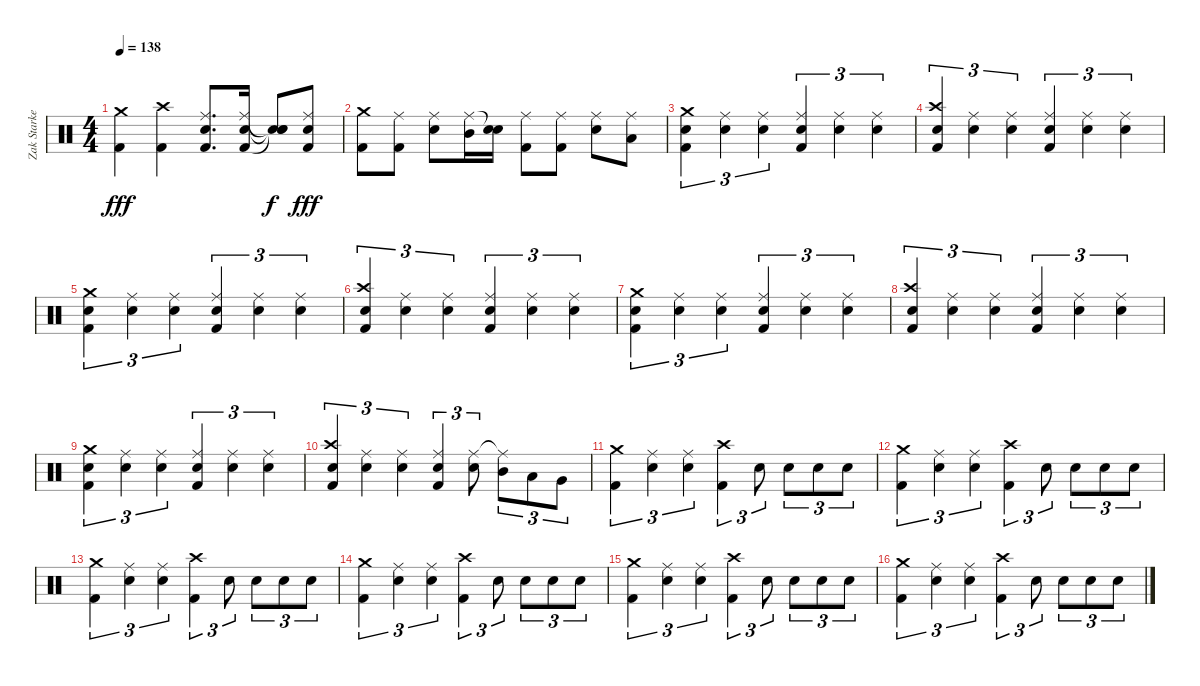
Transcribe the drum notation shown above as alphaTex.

\track ("Zak Starkey" "Zak Starke") {instrument percussion}
\staff {score}
\articulation defaults
\ts (4 4)
\tempo 138
\clef neutral
\ks c
("Crash medium (hit)" "Kick (hit) 2").4{dy fff} ("Crash high (hit)" "Kick (hit) 2").4 ("Ride (middle)" "Snare (hit) 2" "Kick (hit) 2").8{d} ("Ride (middle)" "Snare (hit) 2" "Kick (hit) 2").16 ("Snare (hit)"{t} "Snare (hit)"{t} "Snare (hit)"{t}).8{dy f} ("Ride (middle)" "Snare (hit) 2" "Kick (hit) 2").8{dy fff} |
("Crash medium (hit)" "Kick (hit) 2").8 ("Ride (middle)" "Kick (hit) 2").8 ("Ride (middle)" "Snare (hit) 2").8 ("Ride (middle)" "Mid Tom (hit)").16 ("Snare (hit)"{t} "Snare (hit) 2").16 ("Ride (middle)" "Kick (hit) 2").8 ("Ride (middle)" "Kick (hit) 2").8 ("Ride (middle)" "Snare (hit) 2").8 ("Ride (middle)" "Low Tom (hit)").8 |
("Crash medium (hit)" "Snare (hit) 2" "Kick (hit) 2").4{tu (3 2)} ("Ride (middle)" "Snare (hit) 2").4{tu (3 2)} ("Ride (middle)" "Snare (hit) 2").4{tu (3 2)} ("Ride (middle)" "Snare (hit) 2" "Kick (hit) 2").4{tu (3 2)} ("Ride (middle)" "Snare (hit) 2").4{tu (3 2)} ("Ride (middle)" "Snare (hit) 2").4{tu (3 2)} |
("Crash high (hit)" "Snare (hit) 2" "Kick (hit) 2").4{tu (3 2)} ("Ride (middle)" "Snare (hit) 2").4{tu (3 2)} ("Ride (middle)" "Snare (hit) 2").4{tu (3 2)} ("Ride (middle)" "Snare (hit) 2" "Kick (hit) 2").4{tu (3 2)} ("Ride (middle)" "Snare (hit) 2").4{tu (3 2)} ("Ride (middle)" "Snare (hit) 2").4{tu (3 2)} |
("Crash medium (hit)" "Snare (hit) 2" "Kick (hit) 2").4{tu (3 2)} ("Ride (middle)" "Snare (hit) 2").4{tu (3 2)} ("Ride (middle)" "Snare (hit) 2").4{tu (3 2)} ("Ride (middle)" "Snare (hit) 2" "Kick (hit) 2").4{tu (3 2)} ("Ride (middle)" "Snare (hit) 2").4{tu (3 2)} ("Ride (middle)" "Snare (hit) 2").4{tu (3 2)} |
("Crash high (hit)" "Snare (hit) 2" "Kick (hit) 2").4{tu (3 2)} ("Ride (middle)" "Snare (hit) 2").4{tu (3 2)} ("Ride (middle)" "Snare (hit) 2").4{tu (3 2)} ("Ride (middle)" "Snare (hit) 2" "Kick (hit) 2").4{tu (3 2)} ("Ride (middle)" "Snare (hit) 2").4{tu (3 2)} ("Ride (middle)" "Snare (hit) 2").4{tu (3 2)} |
("Crash medium (hit)" "Snare (hit) 2" "Kick (hit) 2").4{tu (3 2)} ("Ride (middle)" "Snare (hit) 2").4{tu (3 2)} ("Ride (middle)" "Snare (hit) 2").4{tu (3 2)} ("Ride (middle)" "Snare (hit) 2" "Kick (hit) 2").4{tu (3 2)} ("Ride (middle)" "Snare (hit) 2").4{tu (3 2)} ("Ride (middle)" "Snare (hit) 2").4{tu (3 2)} |
("Crash high (hit)" "Snare (hit) 2" "Kick (hit) 2").4{tu (3 2)} ("Ride (middle)" "Snare (hit) 2").4{tu (3 2)} ("Ride (middle)" "Snare (hit) 2").4{tu (3 2)} ("Ride (middle)" "Snare (hit) 2" "Kick (hit) 2").4{tu (3 2)} ("Ride (middle)" "Snare (hit) 2").4{tu (3 2)} ("Ride (middle)" "Snare (hit) 2").4{tu (3 2)} |
("Crash medium (hit)" "Snare (hit) 2" "Kick (hit) 2").4{tu (3 2)} ("Ride (middle)" "Snare (hit) 2").4{tu (3 2)} ("Ride (middle)" "Snare (hit) 2").4{tu (3 2)} ("Ride (middle)" "Snare (hit) 2" "Kick (hit) 2").4{tu (3 2)} ("Ride (middle)" "Snare (hit) 2").4{tu (3 2)} ("Ride (middle)" "Snare (hit) 2").4{tu (3 2)} |
("Crash high (hit)" "Snare (hit) 2" "Kick (hit) 2").4{tu (3 2)} ("Ride (middle)" "Snare (hit) 2").4{tu (3 2)} ("Ride (middle)" "Snare (hit) 2").4{tu (3 2)} ("Ride (middle)" "Snare (hit) 2" "Kick (hit) 2").4{tu (3 2)} ("Ride (middle)" "Snare (hit) 2").8{tu (3 2)} ("Ride (middle)"{t} "Mid Tom (hit)").8{tu (3 2)} "Low Tom (hit)".8{tu (3 2)} "Very Low Tom (hit)".8{tu (3 2)} |
("Crash medium (hit)" "Kick (hit) 2").4{tu (3 2)} ("Ride (middle)" "Snare (hit) 2").4{tu (3 2)} ("Ride (middle)" "Snare (hit) 2").4{tu (3 2)} ("Crash high (hit)" "Kick (hit) 2").4{tu (3 2)} "Snare (hit) 2".8{tu (3 2)} "Snare (hit) 2".8{tu (3 2)} "Snare (hit) 2".8{tu (3 2)} "Snare (hit) 2".8{tu (3 2)} |
("Crash medium (hit)" "Kick (hit) 2").4{tu (3 2)} ("Ride (middle)" "Snare (hit) 2").4{tu (3 2)} ("Ride (middle)" "Snare (hit) 2").4{tu (3 2)} ("Crash high (hit)" "Kick (hit) 2").4{tu (3 2)} "Snare (hit) 2".8{tu (3 2)} "Snare (hit) 2".8{tu (3 2)} "Snare (hit) 2".8{tu (3 2)} "Snare (hit) 2".8{tu (3 2)} |
("Crash medium (hit)" "Kick (hit) 2").4{tu (3 2)} ("Ride (middle)" "Snare (hit) 2").4{tu (3 2)} ("Ride (middle)" "Snare (hit) 2").4{tu (3 2)} ("Crash high (hit)" "Kick (hit) 2").4{tu (3 2)} "Snare (hit) 2".8{tu (3 2)} "Snare (hit) 2".8{tu (3 2)} "Snare (hit) 2".8{tu (3 2)} "Snare (hit) 2".8{tu (3 2)} |
("Crash medium (hit)" "Kick (hit) 2").4{tu (3 2)} ("Ride (middle)" "Snare (hit) 2").4{tu (3 2)} ("Ride (middle)" "Snare (hit) 2").4{tu (3 2)} ("Crash high (hit)" "Kick (hit) 2").4{tu (3 2)} "Snare (hit) 2".8{tu (3 2)} "Snare (hit) 2".8{tu (3 2)} "Snare (hit) 2".8{tu (3 2)} "Snare (hit) 2".8{tu (3 2)} |
("Crash medium (hit)" "Kick (hit) 2").4{tu (3 2)} ("Ride (middle)" "Snare (hit) 2").4{tu (3 2)} ("Ride (middle)" "Snare (hit) 2").4{tu (3 2)} ("Crash high (hit)" "Kick (hit) 2").4{tu (3 2)} "Snare (hit) 2".8{tu (3 2)} "Snare (hit) 2".8{tu (3 2)} "Snare (hit) 2".8{tu (3 2)} "Snare (hit) 2".8{tu (3 2)} |
("Crash medium (hit)" "Kick (hit) 2").4{tu (3 2)} ("Ride (middle)" "Snare (hit) 2").4{tu (3 2)} ("Ride (middle)" "Snare (hit) 2").4{tu (3 2)} ("Crash high (hit)" "Kick (hit) 2").4{tu (3 2)} "Snare (hit) 2".8{tu (3 2)} "Snare (hit) 2".8{tu (3 2)} "Snare (hit) 2".8{tu (3 2)} "Snare (hit) 2".8{tu (3 2)}
